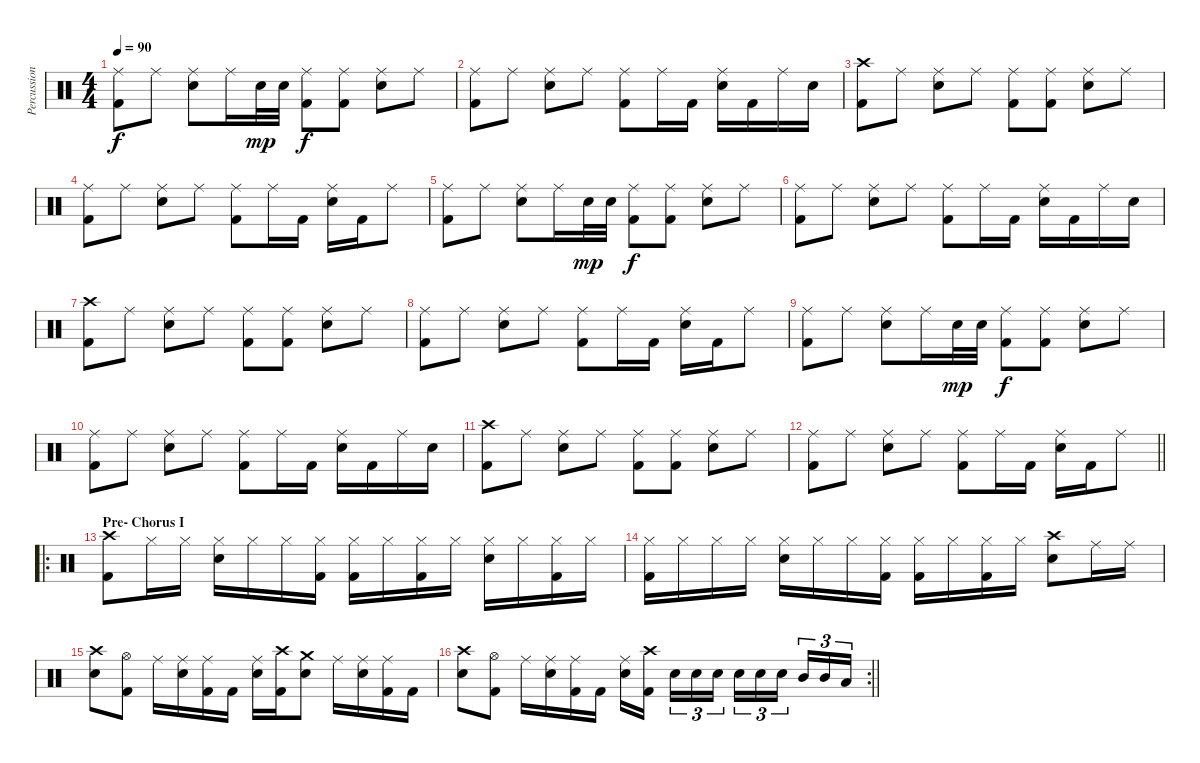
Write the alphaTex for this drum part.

\track ("Percussions" "Percussion") {instrument percussion}
\staff {score}
\articulation defaults
\ts (4 4)
\tempo 90
\clef neutral
\ks c
("Ride (middle)" "Kick (hit) 2").8{dy f} "Ride (middle)".8 ("Ride (middle)" "Electric Snare (hit)").8 "Ride (middle)".16 "Electric Snare (hit)".32{dy mp} "Electric Snare (hit)".32 ("Ride (middle)" "Kick (hit) 2").8{dy f} ("Ride (middle)" "Kick (hit) 2").8 ("Ride (middle)" "Electric Snare (hit)").8 "Ride (middle)".8 |
("Ride (middle)" "Kick (hit) 2").8 "Ride (middle)".8 ("Ride (middle)" "Electric Snare (hit)").8 "Ride (middle)".8 ("Ride (middle)" "Kick (hit) 2").8 "Ride (middle)".16 "Kick (hit) 2".16 ("Ride (middle)" "Electric Snare (hit)").16 "Kick (hit) 2".16 "Ride (middle)".16 "Electric Snare (hit)".16 |
("Crash high (hit)" "Kick (hit) 2").8 "Ride (middle)".8 ("Ride (middle)" "Electric Snare (hit)").8 "Ride (middle)".8 ("Ride (middle)" "Kick (hit) 2").8 ("Ride (middle)" "Kick (hit) 2").8 ("Ride (middle)" "Electric Snare (hit)").8 "Ride (middle)".8 |
("Ride (middle)" "Kick (hit) 2").8 "Ride (middle)".8 ("Ride (middle)" "Electric Snare (hit)").8 "Ride (middle)".8 ("Ride (middle)" "Kick (hit) 2").8 "Ride (middle)".16 "Kick (hit) 2".16 ("Ride (middle)" "Electric Snare (hit)").16 "Kick (hit) 2".16 "Ride (middle)".8 |
("Ride (middle)" "Kick (hit) 2").8 "Ride (middle)".8 ("Ride (middle)" "Electric Snare (hit)").8 "Ride (middle)".16 "Electric Snare (hit)".32{dy mp} "Electric Snare (hit)".32 ("Ride (middle)" "Kick (hit) 2").8{dy f} ("Ride (middle)" "Kick (hit) 2").8 ("Ride (middle)" "Electric Snare (hit)").8 "Ride (middle)".8 |
("Ride (middle)" "Kick (hit) 2").8 "Ride (middle)".8 ("Ride (middle)" "Electric Snare (hit)").8 "Ride (middle)".8 ("Ride (middle)" "Kick (hit) 2").8 "Ride (middle)".16 "Kick (hit) 2".16 ("Ride (middle)" "Electric Snare (hit)").16 "Kick (hit) 2".16 "Ride (middle)".16 "Electric Snare (hit)".16 |
("Crash high (hit)" "Kick (hit) 2").8 "Ride (middle)".8 ("Ride (middle)" "Electric Snare (hit)").8 "Ride (middle)".8 ("Ride (middle)" "Kick (hit) 2").8 ("Ride (middle)" "Kick (hit) 2").8 ("Ride (middle)" "Electric Snare (hit)").8 "Ride (middle)".8 |
("Ride (middle)" "Kick (hit) 2").8 "Ride (middle)".8 ("Ride (middle)" "Electric Snare (hit)").8 "Ride (middle)".8 ("Ride (middle)" "Kick (hit) 2").8 "Ride (middle)".16 "Kick (hit) 2".16 ("Ride (middle)" "Electric Snare (hit)").16 "Kick (hit) 2".16 "Ride (middle)".8 |
("Ride (middle)" "Kick (hit) 2").8 "Ride (middle)".8 ("Ride (middle)" "Electric Snare (hit)").8 "Ride (middle)".16 "Electric Snare (hit)".32{dy mp} "Electric Snare (hit)".32 ("Ride (middle)" "Kick (hit) 2").8{dy f} ("Ride (middle)" "Kick (hit) 2").8 ("Ride (middle)" "Electric Snare (hit)").8 "Ride (middle)".8 |
("Ride (middle)" "Kick (hit) 2").8 "Ride (middle)".8 ("Ride (middle)" "Electric Snare (hit)").8 "Ride (middle)".8 ("Ride (middle)" "Kick (hit) 2").8 "Ride (middle)".16 "Kick (hit) 2".16 ("Ride (middle)" "Electric Snare (hit)").16 "Kick (hit) 2".16 "Ride (middle)".16 "Electric Snare (hit)".16 |
("Crash high (hit)" "Kick (hit) 2").8 "Ride (middle)".8 ("Ride (middle)" "Electric Snare (hit)").8 "Ride (middle)".8 ("Ride (middle)" "Kick (hit) 2").8 ("Ride (middle)" "Kick (hit) 2").8 ("Ride (middle)" "Electric Snare (hit)").8 "Ride (middle)".8 |
\barLineRight lightlight
("Ride (middle)" "Kick (hit) 2").8 "Ride (middle)".8 ("Ride (middle)" "Electric Snare (hit)").8 "Ride (middle)".8 ("Ride (middle)" "Kick (hit) 2").8 "Ride (middle)".16 "Kick (hit) 2".16 ("Ride (middle)" "Electric Snare (hit)").16 "Kick (hit) 2".16 "Ride (middle)".8 |
\ro
\section ("" "Pre- Chorus I")
("Crash high (hit)" "Kick (hit) 2").8 "Hi-Hat (closed)".16 "Hi-Hat (closed)".16 ("Hi-Hat (closed)" "Electric Snare (hit)").16 "Hi-Hat (closed)".16 "Hi-Hat (closed)".16 ("Hi-Hat (closed)" "Kick (hit) 2").16 ("Hi-Hat (closed)" "Kick (hit) 2").16 "Hi-Hat (closed)".16 ("Hi-Hat (closed)" "Kick (hit) 2").16 "Hi-Hat (closed)".16 ("Hi-Hat (closed)" "Electric Snare (hit)").16 "Hi-Hat (closed)".16 ("Hi-Hat (closed)" "Kick (hit) 2").16 "Hi-Hat (closed)".16 |
("Hi-Hat (closed)" "Kick (hit) 2").16 "Hi-Hat (closed)".16 "Hi-Hat (closed)".16 "Hi-Hat (closed)".16 ("Hi-Hat (closed)" "Electric Snare (hit)").16 "Hi-Hat (closed)".16 "Hi-Hat (closed)".16 ("Hi-Hat (closed)" "Kick (hit) 2").16 ("Hi-Hat (closed)" "Kick (hit) 2").16 "Hi-Hat (closed)".16 ("Hi-Hat (closed)" "Kick (hit) 2").16 "Hi-Hat (closed)".16 ("Crash high (hit)" "Electric Snare (hit)").8 "Ride (middle)".16 "Ride (middle)".16 |
("Crash high (hit)" "Electric Snare (hit)").8 ("Hi-Hat (open)" "Kick (hit) 2").8 "Ride (middle)".16 ("Ride (middle)" "Electric Snare (hit)").16 ("Ride (middle)" "Kick (hit) 2").16 "Kick (hit) 2".16 ("Ride (middle)" "Electric Snare (hit)").16 ("Crash high (hit)" "Kick (hit) 2").16 ("Crash medium (hit)" "Electric Snare (hit)").8 "Ride (middle)".16 ("Ride (middle)" "Electric Snare (hit)").16 ("Ride (middle)" "Kick (hit) 2").16 "Kick (hit) 2".16 |
\rc 2
\barLineRight lightlight
("Crash high (hit)" "Electric Snare (hit)").8 ("Hi-Hat (open)" "Kick (hit) 2").8 "Ride (middle)".16 ("Ride (middle)" "Electric Snare (hit)").16 ("Ride (middle)" "Kick (hit) 2").16 "Kick (hit) 2".16 ("Ride (middle)" "Electric Snare (hit)").16 ("Crash high (hit)" "Kick (hit) 2").16{beam splitsecondary} "Electric Snare (hit)".16{tu (3 2)} "Electric Snare (hit)".16{tu (3 2)} "Electric Snare (hit)".16{tu (3 2)} "Electric Snare (hit)".16{tu (3 2)} "Electric Snare (hit)".16{tu (3 2)} "Electric Snare (hit)".16{tu (3 2) beam splitsecondary} "Mid Tom (hit)".16{tu (3 2)} "Mid Tom (hit)".16{tu (3 2)} "Low Tom (hit)".16{tu (3 2)}
